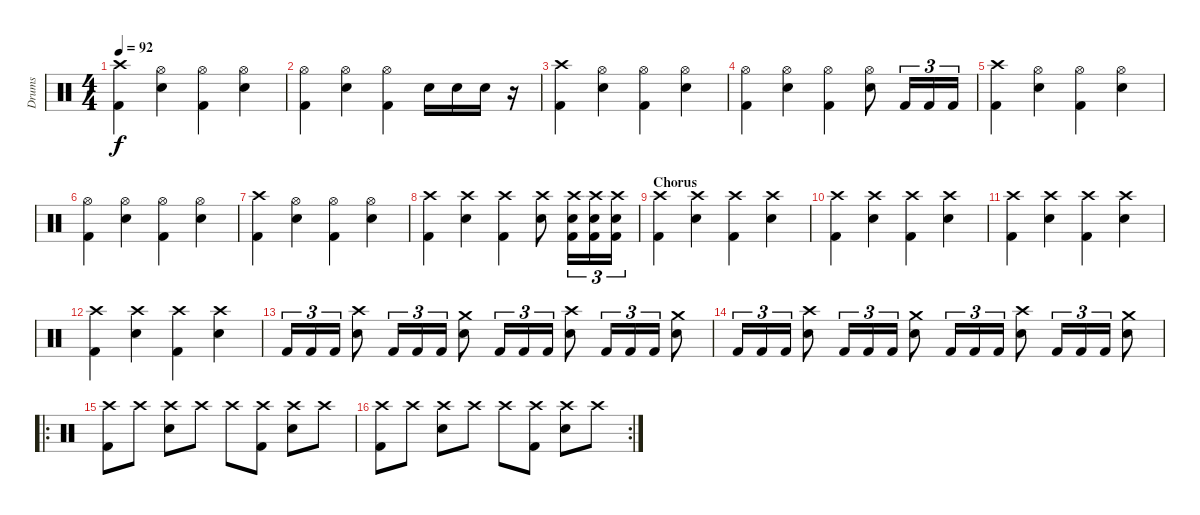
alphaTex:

\track ("Drums" "Drums") {instrument percussion}
\staff {score}
\articulation defaults
\ts (4 4)
\tempo 92
\clef neutral
\ks c
("Crash high (hit)" "Kick (hit) 2").4{dy f} ("Hi-Hat (open)" "Electric Snare (hit)").4 ("Hi-Hat (open)" "Kick (hit) 2").4 ("Hi-Hat (open)" "Electric Snare (hit)").4 |
("Hi-Hat (open)" "Kick (hit) 2").4 ("Hi-Hat (open)" "Electric Snare (hit)").4 ("Hi-Hat (open)" "Kick (hit) 2").4 "Electric Snare (hit)".16 "Electric Snare (hit)".16 "Electric Snare (hit)".16 r.16 |
("Crash high (hit)" "Kick (hit) 2").4 ("Hi-Hat (open)" "Electric Snare (hit)").4 ("Hi-Hat (open)" "Kick (hit) 2").4 ("Hi-Hat (open)" "Electric Snare (hit)").4 |
("Hi-Hat (open)" "Kick (hit) 2").4 ("Hi-Hat (open)" "Electric Snare (hit)").4 ("Hi-Hat (open)" "Kick (hit) 2").4 ("Hi-Hat (open)" "Electric Snare (hit)").8 "Kick (hit) 2".16{tu (3 2)} "Kick (hit) 2".16{tu (3 2)} "Kick (hit) 2".16{tu (3 2)} |
("Crash high (hit)" "Kick (hit) 2").4 ("Hi-Hat (open)" "Electric Snare (hit)").4 ("Hi-Hat (open)" "Kick (hit) 2").4 ("Hi-Hat (open)" "Electric Snare (hit)").4 |
("Hi-Hat (open)" "Kick (hit) 2").4 ("Hi-Hat (open)" "Electric Snare (hit)").4 ("Hi-Hat (open)" "Kick (hit) 2").4 ("Hi-Hat (open)" "Electric Snare (hit)").4 |
("Crash high (hit)" "Kick (hit) 2").4 ("Hi-Hat (open)" "Electric Snare (hit)").4 ("Hi-Hat (open)" "Kick (hit) 2").4 ("Hi-Hat (open)" "Electric Snare (hit)").4 |
("Crash high (hit)" "Kick (hit) 2").4 ("Crash high (hit)" "Electric Snare (hit)").4 ("Crash high (hit)" "Kick (hit) 2").4 ("Crash high (hit)" "Electric Snare (hit)").8 ("Crash high (hit)" "Kick (hit) 2" "Electric Snare (hit)").16{tu (3 2)} ("Crash high (hit)" "Kick (hit) 2" "Electric Snare (hit)").16{tu (3 2)} ("Crash high (hit)" "Kick (hit) 2" "Electric Snare (hit)").16{tu (3 2)} |
\section ("" "Chorus")
("Crash high (hit)" "Kick (hit) 2").4 ("Crash high (hit)" "Electric Snare (hit)").4 ("Crash high (hit)" "Kick (hit) 2").4 ("Crash high (hit)" "Electric Snare (hit)").4 |
("Crash high (hit)" "Kick (hit) 2").4 ("Crash high (hit)" "Electric Snare (hit)").4 ("Crash high (hit)" "Kick (hit) 2").4 ("Crash high (hit)" "Electric Snare (hit)").4 |
("Crash high (hit)" "Kick (hit) 2").4 ("Crash high (hit)" "Electric Snare (hit)").4 ("Crash high (hit)" "Kick (hit) 2").4 ("Crash high (hit)" "Electric Snare (hit)").4 |
("Crash high (hit)" "Kick (hit) 2").4 ("Crash high (hit)" "Electric Snare (hit)").4 ("Crash high (hit)" "Kick (hit) 2").4 ("Crash high (hit)" "Electric Snare (hit)").4 |
"Kick (hit) 2".16{tu (3 2)} "Kick (hit) 2".16{tu (3 2)} "Kick (hit) 2".16{tu (3 2)} ("Electric Snare (hit)" "Crash high (hit)").8 "Kick (hit) 2".16{tu (3 2)} "Kick (hit) 2".16{tu (3 2)} "Kick (hit) 2".16{tu (3 2)} ("Electric Snare (hit)" "Crash medium (hit)").8 "Kick (hit) 2".16{tu (3 2)} "Kick (hit) 2".16{tu (3 2)} "Kick (hit) 2".16{tu (3 2)} ("Electric Snare (hit)" "Crash high (hit)").8 "Kick (hit) 2".16{tu (3 2)} "Kick (hit) 2".16{tu (3 2)} "Kick (hit) 2".16{tu (3 2)} ("Electric Snare (hit)" "Crash medium (hit)").8 |
"Kick (hit) 2".16{tu (3 2)} "Kick (hit) 2".16{tu (3 2)} "Kick (hit) 2".16{tu (3 2)} ("Electric Snare (hit)" "Crash high (hit)").8 "Kick (hit) 2".16{tu (3 2)} "Kick (hit) 2".16{tu (3 2)} "Kick (hit) 2".16{tu (3 2)} ("Electric Snare (hit)" "Crash medium (hit)").8 "Kick (hit) 2".16{tu (3 2)} "Kick (hit) 2".16{tu (3 2)} "Kick (hit) 2".16{tu (3 2)} ("Electric Snare (hit)" "Crash high (hit)").8 "Kick (hit) 2".16{tu (3 2)} "Kick (hit) 2".16{tu (3 2)} "Kick (hit) 2".16{tu (3 2)} ("Electric Snare (hit)" "Crash medium (hit)").8 |
\ro
("Crash high (hit)" "Kick (hit) 2").8 "Crash high (hit)".8 ("Crash high (hit)" "Electric Snare (hit)").8 "Crash high (hit)".8 "Crash high (hit)".8 ("Crash high (hit)" "Kick (hit) 2").8 ("Crash high (hit)" "Electric Snare (hit)").8 "Crash high (hit)".8 |
\rc 2
("Crash high (hit)" "Kick (hit) 2").8 "Crash high (hit)".8 ("Crash high (hit)" "Electric Snare (hit)").8 "Crash high (hit)".8 "Crash high (hit)".8 ("Crash high (hit)" "Kick (hit) 2").8 ("Crash high (hit)" "Electric Snare (hit)").8 "Crash high (hit)".8
